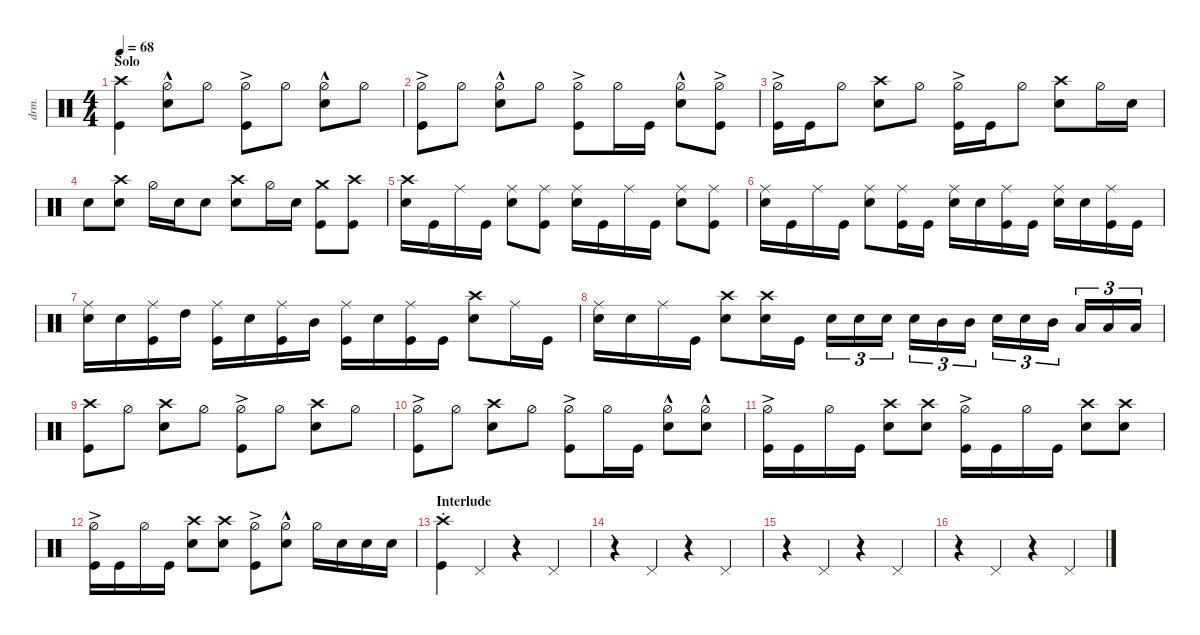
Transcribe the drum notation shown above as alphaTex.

\defaultSystemsLayout 4
\hideDynamics
\bracketExtendMode nobrackets
\otherSystemsTrackNameOrientation horizontal
\track ("Drums" "drm.") {defaultSystemsLayout 4 instrument percussion}
\staff
\articulation defaults
\ts (4 4)
\section ("" "Solo")
\tempo 68
\clef neutral
\ks c
("Crash high (hit)" "Kick (hit)").4{dy f} ("Snare (hit) 2" "Hi-Hat (half)"{hac}).8 "Hi-Hat (half)".8 ("Hi-Hat (half)"{ac} "Kick (hit)").8 "Hi-Hat (half)".8 ("Snare (hit) 2" "Hi-Hat (half)"{hac}).8 "Hi-Hat (half)".8 |
("Kick (hit)" "Hi-Hat (half)"{ac}).8 "Hi-Hat (half)".8 ("Snare (hit) 2" "Hi-Hat (half)"{hac}).8 "Hi-Hat (half)".8 ("Hi-Hat (half)"{ac} "Kick (hit)").8 "Hi-Hat (half)".16 "Kick (hit)".16 ("Snare (hit) 2" "Hi-Hat (half)"{hac}).8 ("Hi-Hat (half)"{ac} "Kick (hit)").8 |
("Kick (hit)" "Hi-Hat (half)"{ac}).16 "Kick (hit)".16 "Hi-Hat (half)".8 ("Snare (hit) 2" "Crash high (hit)").8 "Hi-Hat (half)".8 ("Kick (hit)" "Hi-Hat (half)"{ac}).16 "Kick (hit)".16 "Hi-Hat (half)".8 ("Snare (hit) 2" "Crash high (hit)").8 "Hi-Hat (half)".16 "Snare (hit) 2".16 |
"Snare (hit) 2".8 ("Snare (hit) 2" "Crash high (hit)").8 "Hi-Hat (half)".16 "Snare (hit) 2".16 "Snare (hit) 2".8 ("Snare (hit) 2" "Crash high (hit)").8 "Hi-Hat (half)".16 "Snare (hit) 2".16 ("Crash medium (hit)" "Kick (hit)").8 ("Crash high (hit)" "Kick (hit)").8 |
("Crash high (hit)" "Snare (hit) 2").16 "Kick (hit)".16 "Ride (middle)".16 "Kick (hit)".16 ("Snare (hit) 2" "Ride (middle)").8 ("Ride (middle)" "Kick (hit)").8 ("Snare (hit) 2" "Ride (middle)").16 "Kick (hit)".16 "Ride (middle)".16 "Kick (hit)".16 ("Snare (hit) 2" "Ride (middle)").8 ("Ride (middle)" "Kick (hit)").8 |
("Snare (hit) 2" "Ride (middle)").16 "Kick (hit)".16 "Ride (middle)".16 "Kick (hit)".16 ("Snare (hit) 2" "Ride (middle)").8 ("Ride (middle)" "Kick (hit)").16 "Kick (hit)".16 ("Snare (hit) 2" "Ride (middle)").16 "Snare (hit) 2".16 ("Ride (middle)" "Kick (hit)").16 "Kick (hit)".16 ("Snare (hit) 2" "Ride (middle)").16 "Snare (hit) 2".16 ("Ride (middle)" "Kick (hit)").16 "Kick (hit)".16 |
("Snare (hit) 2" "Ride (middle)").16 "Snare (hit) 2".16 ("Ride (middle)" "Kick (hit)").16 "High Tom (hit)".16{dy ff} ("Ride (middle)" "Kick (hit)").16{dy f} "Snare (hit) 2".16 ("Ride (middle)" "Kick (hit)").16 "Mid Tom (hit)".16{dy ff} ("Ride (middle)" "Kick (hit)").16{dy f} "Snare (hit) 2".16 ("Ride (middle)" "Kick (hit)").16 "Kick (hit)".16 ("Snare (hit) 2" "Crash high (hit)").8 "Ride (middle)".16 "Kick (hit)".16 |
("Snare (hit) 2" "Ride (middle)").16 "Snare (hit) 2".16 "Ride (middle)".16 "Kick (hit)".16 ("Snare (hit) 2" "Crash high (hit)").8 ("Snare (hit) 2" "Crash high (hit)").16 "Kick (hit)".16 "Snare (hit) 2".16{tu (3 2)} "Snare (hit) 2".16{tu (3 2) dy mp} "Snare (hit) 2".16{tu (3 2)} "Snare (hit) 2".16{tu (3 2) dy f} "Mid Tom (hit)".16{tu (3 2) dy ff} "Mid Tom (hit)".16{tu (3 2)} "Snare (hit) 2".16{tu (3 2) dy f} "Snare (hit) 2".16{tu (3 2) dy ff} "Mid Tom (hit)".16{tu (3 2)} "Low Tom (hit)".16{tu (3 2)} "Low Tom (hit)".16{tu (3 2)} "Low Tom (hit)".16{tu (3 2)} |
("Crash high (hit)" "Kick (hit)").8{dy f} "Hi-Hat (half)".8 ("Snare (hit) 2" "Crash high (hit)").8 "Hi-Hat (half)".8 ("Hi-Hat (half)"{ac} "Kick (hit)").8 "Hi-Hat (half)".8 ("Snare (hit) 2" "Crash high (hit)").8 "Hi-Hat (half)".8 |
("Hi-Hat (half)"{ac} "Kick (hit)").8 "Hi-Hat (half)".8 ("Snare (hit) 2" "Crash high (hit)").8 "Hi-Hat (half)".8 ("Hi-Hat (half)"{ac} "Kick (hit)").8 "Hi-Hat (half)".16 "Kick (hit)".16 ("Hi-Hat (half)"{hac} "Snare (hit) 2").8 ("Hi-Hat (half)"{hac} "Snare (hit) 2").8 |
("Hi-Hat (half)"{ac} "Kick (hit)").16 "Kick (hit)".16 "Hi-Hat (half)".16 "Kick (hit)".16 ("Snare (hit) 2" "Crash high (hit)").8 ("Snare (hit) 2" "Crash high (hit)").8 ("Hi-Hat (half)"{ac} "Kick (hit)").16 "Kick (hit)".16 "Hi-Hat (half)".16 "Kick (hit)".16 ("Snare (hit) 2" "Crash high (hit)").8 ("Snare (hit) 2" "Crash high (hit)").8 |
("Hi-Hat (half)"{ac} "Kick (hit)").16 "Kick (hit)".16 "Hi-Hat (half)".16 "Kick (hit)".16 ("Snare (hit) 2" "Crash high (hit)").8 ("Snare (hit) 2" "Crash high (hit)").8 ("Hi-Hat (half)"{ac} "Kick (hit)").8 ("Hi-Hat (half)"{hac} "Snare (hit) 2").8 "Hi-Hat (half)".16 "Snare (hit) 2".16 "Snare (hit) 2".16 "Snare (hit) 2".16 |
\section ("" "Interlude")
("Kick (hit)" "Crash high (hit)"{st}).4{dy mf} "Pedal Hi-Hat (hit)".4 r.4 "Pedal Hi-Hat (hit)".4 |
r.4 "Pedal Hi-Hat (hit)".4 r.4 "Pedal Hi-Hat (hit)".4 |
r.4 "Pedal Hi-Hat (hit)".4 r.4 "Pedal Hi-Hat (hit)".4 |
r.4 "Pedal Hi-Hat (hit)".4 r.4 "Pedal Hi-Hat (hit)".4
